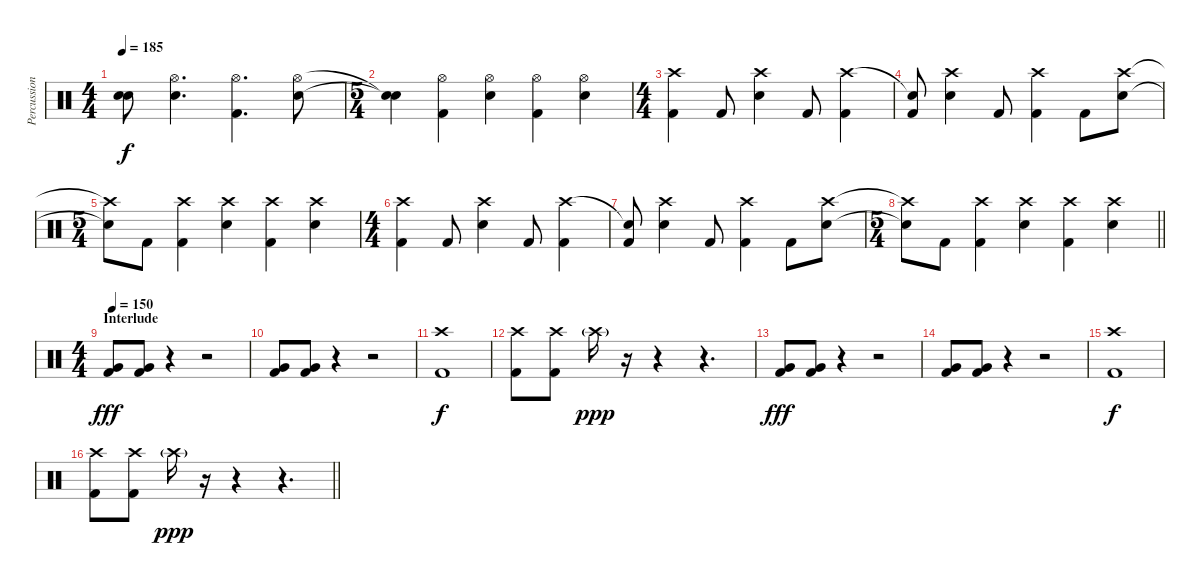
\track ("Percussion" "Percussion") {instrument percussion}
\staff {score}
\articulation defaults
\ts (4 4)
\tempo 185
\clef neutral
\ks c
("Snare (hit)"{t} "Snare (hit)"{t}).8{dy f} ("Hi-Hat (open)" "Snare (hit) 2").4{d} ("Hi-Hat (open)" "Kick (hit) 2").4{d} ("Hi-Hat (open)" "Snare (hit) 2").8 |
\ts (5 4)
("Snare (hit)"{t} "Snare (hit)"{t}).4 ("Hi-Hat (open)" "Kick (hit) 2").4 ("Hi-Hat (open)" "Snare (hit) 2").4 ("Hi-Hat (open)" "Kick (hit) 2").4 ("Hi-Hat (open)" "Snare (hit) 2").4 |
\ts (4 4)
("Crash high (hit)" "Kick (hit) 2").4 "Kick (hit) 2".8 ("Crash high (hit)" "Snare (hit) 2").4 "Kick (hit) 2".8 ("Crash high (hit)" "Kick (hit) 2").4 |
("Snare (hit)"{t} "Kick (hit) 2").8 ("Crash high (hit)" "Snare (hit) 2").4 "Kick (hit) 2".8 ("Crash high (hit)" "Kick (hit) 2").4 "Kick (hit) 2".8 ("Crash high (hit)" "Snare (hit) 2").8 |
\ts (5 4)
("Crash high (hit)"{t} "Snare (hit)"{t}).8 "Kick (hit) 2".8 ("Crash high (hit)" "Kick (hit) 2").4 ("Crash high (hit)" "Snare (hit) 2").4 ("Crash high (hit)" "Kick (hit) 2").4 ("Crash high (hit)" "Snare (hit) 2").4 |
\ts (4 4)
("Crash high (hit)" "Kick (hit) 2").4 "Kick (hit) 2".8 ("Crash high (hit)" "Snare (hit) 2").4 "Kick (hit) 2".8 ("Crash high (hit)" "Kick (hit) 2").4 |
("Snare (hit)"{t} "Kick (hit) 2").8 ("Crash high (hit)" "Snare (hit) 2").4 "Kick (hit) 2".8 ("Crash high (hit)" "Kick (hit) 2").4 "Kick (hit) 2".8 ("Crash high (hit)" "Snare (hit) 2").8 |
\ts (5 4)
\barLineRight lightlight
("Crash high (hit)"{t} "Snare (hit)"{t}).8 "Kick (hit) 2".8 ("Crash high (hit)" "Kick (hit) 2").4 ("Crash high (hit)" "Snare (hit) 2").4 ("Crash high (hit)" "Kick (hit) 2").4 ("Crash high (hit)" "Snare (hit) 2").4 |
\ts (4 4)
\section ("" "Interlude")
\tempo 150
("Very Low Tom (hit)" "Kick (hit) 2").8{dy fff} ("Very Low Tom (hit)" "Kick (hit) 2").8 r.4 r.2 |
("Very Low Tom (hit)" "Kick (hit) 2").8 ("Very Low Tom (hit)" "Kick (hit) 2").8 r.4 r.2 |
("Crash high (hit)" "Kick (hit) 2").1{dy f} |
("Crash high (hit)" "Kick (hit) 2").8 ("Crash high (hit)" "Kick (hit) 2").8 "Crash high (hit)"{g}.16{dy ppp} r.16 r.4 r.4{d} |
("Very Low Tom (hit)" "Kick (hit) 2").8{dy fff} ("Very Low Tom (hit)" "Kick (hit) 2").8 r.4 r.2 |
("Very Low Tom (hit)" "Kick (hit) 2").8 ("Very Low Tom (hit)" "Kick (hit) 2").8 r.4 r.2 |
("Crash high (hit)" "Kick (hit) 2").1{dy f} |
\barLineRight lightlight
("Crash high (hit)" "Kick (hit) 2").8 ("Crash high (hit)" "Kick (hit) 2").8 "Crash high (hit)"{g}.16{dy ppp} r.16 r.4 r.4{d}
